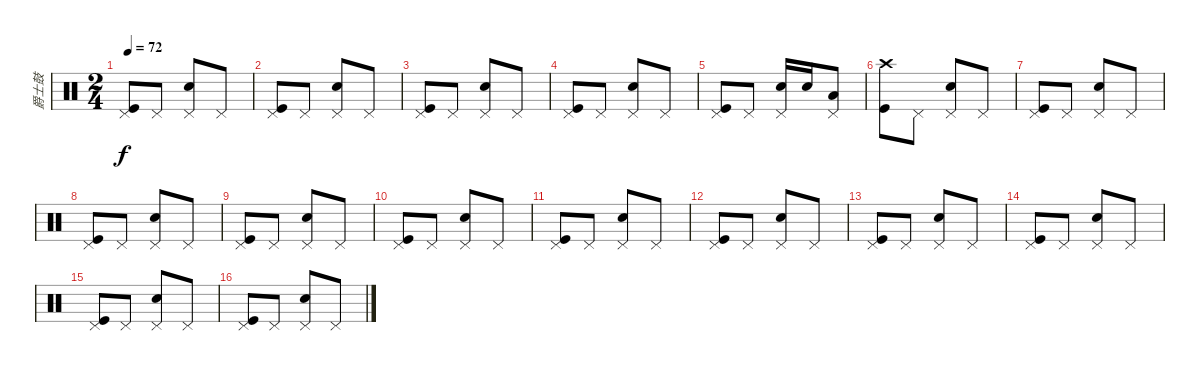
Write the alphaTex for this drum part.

\track ("爵士鼓" "爵士鼓") {instrument percussion}
\staff {score}
\articulation defaults
\ts (2 4)
\tempo 72
\clef neutral
\ks c
("Pedal Hi-Hat (hit)" "Kick (hit)").8{dy f} "Pedal Hi-Hat (hit)".8 ("Pedal Hi-Hat (hit)" "Electric Snare (hit)").8 "Pedal Hi-Hat (hit)".8 |
("Pedal Hi-Hat (hit)" "Kick (hit)").8 "Pedal Hi-Hat (hit)".8 ("Pedal Hi-Hat (hit)" "Electric Snare (hit)").8 "Pedal Hi-Hat (hit)".8 |
("Pedal Hi-Hat (hit)" "Kick (hit)").8 "Pedal Hi-Hat (hit)".8 ("Pedal Hi-Hat (hit)" "Electric Snare (hit)").8 "Pedal Hi-Hat (hit)".8 |
("Pedal Hi-Hat (hit)" "Kick (hit)").8 "Pedal Hi-Hat (hit)".8 ("Pedal Hi-Hat (hit)" "Electric Snare (hit)").8 "Pedal Hi-Hat (hit)".8 |
("Pedal Hi-Hat (hit)" "Kick (hit)").8 "Pedal Hi-Hat (hit)".8 ("Pedal Hi-Hat (hit)" "Electric Snare (hit)").16 "Electric Snare (hit)".16 ("Pedal Hi-Hat (hit)" "Low Floor Tom (hit)").8 |
("Crash high (hit)" "Kick (hit)").8 "Pedal Hi-Hat (hit)".8 ("Pedal Hi-Hat (hit)" "Electric Snare (hit)").8 "Pedal Hi-Hat (hit)".8 |
("Pedal Hi-Hat (hit)" "Kick (hit)").8 "Pedal Hi-Hat (hit)".8 ("Pedal Hi-Hat (hit)" "Electric Snare (hit)").8 "Pedal Hi-Hat (hit)".8 |
("Pedal Hi-Hat (hit)" "Kick (hit)").8 "Pedal Hi-Hat (hit)".8 ("Pedal Hi-Hat (hit)" "Electric Snare (hit)").8 "Pedal Hi-Hat (hit)".8 |
("Pedal Hi-Hat (hit)" "Kick (hit)").8 "Pedal Hi-Hat (hit)".8 ("Pedal Hi-Hat (hit)" "Electric Snare (hit)").8 "Pedal Hi-Hat (hit)".8 |
("Pedal Hi-Hat (hit)" "Kick (hit)").8 "Pedal Hi-Hat (hit)".8 ("Pedal Hi-Hat (hit)" "Electric Snare (hit)").8 "Pedal Hi-Hat (hit)".8 |
("Pedal Hi-Hat (hit)" "Kick (hit)").8 "Pedal Hi-Hat (hit)".8 ("Pedal Hi-Hat (hit)" "Electric Snare (hit)").8 "Pedal Hi-Hat (hit)".8 |
("Pedal Hi-Hat (hit)" "Kick (hit)").8 "Pedal Hi-Hat (hit)".8 ("Pedal Hi-Hat (hit)" "Electric Snare (hit)").8 "Pedal Hi-Hat (hit)".8 |
("Pedal Hi-Hat (hit)" "Kick (hit)").8 "Pedal Hi-Hat (hit)".8 ("Pedal Hi-Hat (hit)" "Electric Snare (hit)").8 "Pedal Hi-Hat (hit)".8 |
("Pedal Hi-Hat (hit)" "Kick (hit)").8 "Pedal Hi-Hat (hit)".8 ("Pedal Hi-Hat (hit)" "Electric Snare (hit)").8 "Pedal Hi-Hat (hit)".8 |
("Pedal Hi-Hat (hit)" "Kick (hit)").8 "Pedal Hi-Hat (hit)".8 ("Pedal Hi-Hat (hit)" "Electric Snare (hit)").8 "Pedal Hi-Hat (hit)".8 |
("Pedal Hi-Hat (hit)" "Kick (hit)").8 "Pedal Hi-Hat (hit)".8 ("Pedal Hi-Hat (hit)" "Electric Snare (hit)").8 "Pedal Hi-Hat (hit)".8
